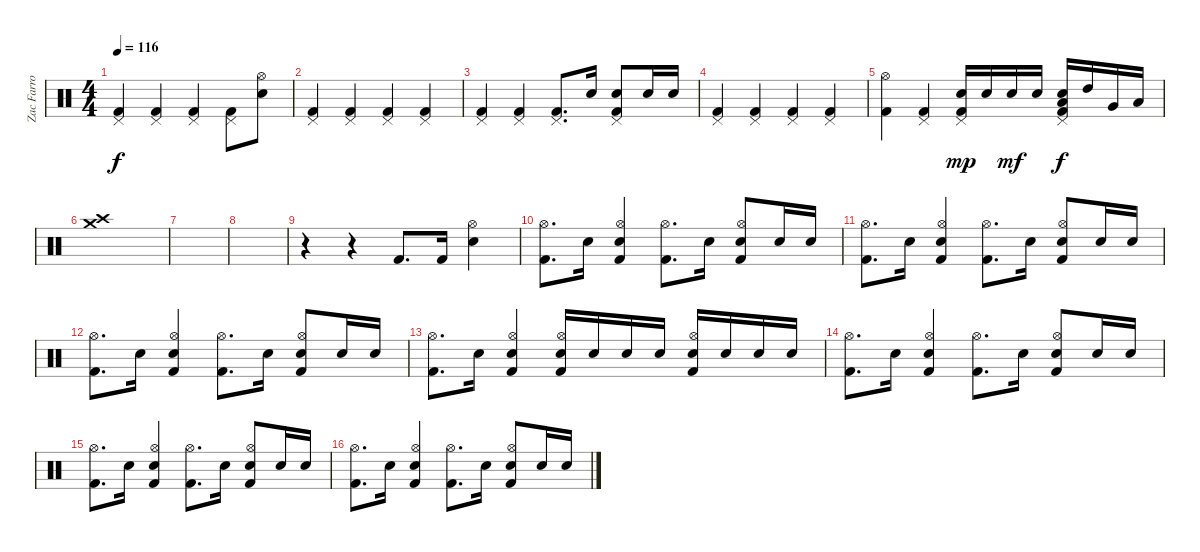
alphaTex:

\track ("Zac Farro" "Zac Farro") {instrument percussion}
\staff {score}
\articulation defaults
\ts (4 4)
\tempo 116
\clef neutral
\ks c
("Pedal Hi-Hat (hit)" "Kick (hit) 2").4{dy f} ("Pedal Hi-Hat (hit)" "Kick (hit) 2").4 ("Pedal Hi-Hat (hit)" "Kick (hit) 2").4 ("Pedal Hi-Hat (hit)" "Kick (hit) 2").8 ("Hi-Hat (open)" "Electric Snare (hit)").8 |
("Pedal Hi-Hat (hit)" "Kick (hit) 2").4 ("Pedal Hi-Hat (hit)" "Kick (hit) 2").4 ("Pedal Hi-Hat (hit)" "Kick (hit) 2").4 ("Pedal Hi-Hat (hit)" "Kick (hit) 2").4 |
("Pedal Hi-Hat (hit)" "Kick (hit) 2").4 ("Pedal Hi-Hat (hit)" "Kick (hit) 2").4 ("Pedal Hi-Hat (hit)" "Kick (hit) 2").8{d} "Electric Snare (hit)".16 ("Pedal Hi-Hat (hit)" "Kick (hit) 2" "Electric Snare (hit)").8 "Electric Snare (hit)".16 "Electric Snare (hit)".16 |
("Pedal Hi-Hat (hit)" "Kick (hit) 2").4 ("Pedal Hi-Hat (hit)" "Kick (hit) 2").4 ("Pedal Hi-Hat (hit)" "Kick (hit) 2").4 ("Pedal Hi-Hat (hit)" "Kick (hit) 2").4 |
("Hi-Hat (open)" "Kick (hit) 2").4 ("Pedal Hi-Hat (hit)" "Kick (hit) 2").4 ("Pedal Hi-Hat (hit)" "Kick (hit) 2" "Electric Snare (hit)").16{dy mp} "Electric Snare (hit)".16 "Electric Snare (hit)".16{dy mf} "Electric Snare (hit)".16 ("Pedal Hi-Hat (hit)" "Kick (hit) 2" "Electric Snare (hit)" "Low Floor Tom (hit)").16{dy f} "High Tom (hit)".16 "Very Low Tom (hit)".16 "Low Tom (hit)".16 |
("Crash high (hit)" "Crash medium (hit)").1 |
|
|
r.4 r.4 "Kick (hit) 2".8{d} "Kick (hit) 2".16 ("Hi-Hat (open)" "Electric Snare (hit)").4 |
("Hi-Hat (open)" "Kick (hit) 2").8{d} "Electric Snare (hit)".16 ("Hi-Hat (open)" "Kick (hit) 2" "Electric Snare (hit)").4 ("Hi-Hat (open)" "Kick (hit) 2").8{d} "Electric Snare (hit)".16 ("Hi-Hat (open)" "Kick (hit) 2" "Electric Snare (hit)").8 "Electric Snare (hit)".16 "Electric Snare (hit)".16 |
("Hi-Hat (open)" "Kick (hit) 2").8{d} "Electric Snare (hit)".16 ("Hi-Hat (open)" "Kick (hit) 2" "Electric Snare (hit)").4 ("Hi-Hat (open)" "Kick (hit) 2").8{d} "Electric Snare (hit)".16 ("Hi-Hat (open)" "Kick (hit) 2" "Electric Snare (hit)").8 "Electric Snare (hit)".16 "Electric Snare (hit)".16 |
("Hi-Hat (open)" "Kick (hit) 2").8{d} "Electric Snare (hit)".16 ("Hi-Hat (open)" "Kick (hit) 2" "Electric Snare (hit)").4 ("Hi-Hat (open)" "Kick (hit) 2").8{d} "Electric Snare (hit)".16 ("Hi-Hat (open)" "Kick (hit) 2" "Electric Snare (hit)").8 "Electric Snare (hit)".16 "Electric Snare (hit)".16 |
("Hi-Hat (open)" "Kick (hit) 2").8{d} "Electric Snare (hit)".16 ("Hi-Hat (open)" "Kick (hit) 2" "Electric Snare (hit)").4 ("Hi-Hat (open)" "Kick (hit) 2" "Electric Snare (hit)").16 "Electric Snare (hit)".16 "Electric Snare (hit)".16 "Electric Snare (hit)".16 ("Hi-Hat (open)" "Kick (hit) 2" "Electric Snare (hit)").16 "Electric Snare (hit)".16 "Electric Snare (hit)".16 "Electric Snare (hit)".16 |
("Hi-Hat (open)" "Kick (hit) 2").8{d} "Electric Snare (hit)".16 ("Hi-Hat (open)" "Kick (hit) 2" "Electric Snare (hit)").4 ("Hi-Hat (open)" "Kick (hit) 2").8{d} "Electric Snare (hit)".16 ("Hi-Hat (open)" "Kick (hit) 2" "Electric Snare (hit)").8 "Electric Snare (hit)".16 "Electric Snare (hit)".16 |
("Hi-Hat (open)" "Kick (hit) 2").8{d} "Electric Snare (hit)".16 ("Hi-Hat (open)" "Kick (hit) 2" "Electric Snare (hit)").4 ("Hi-Hat (open)" "Kick (hit) 2").8{d} "Electric Snare (hit)".16 ("Hi-Hat (open)" "Kick (hit) 2" "Electric Snare (hit)").8 "Electric Snare (hit)".16 "Electric Snare (hit)".16 |
("Hi-Hat (open)" "Kick (hit) 2").8{d} "Electric Snare (hit)".16 ("Hi-Hat (open)" "Kick (hit) 2" "Electric Snare (hit)").4 ("Hi-Hat (open)" "Kick (hit) 2").8{d} "Electric Snare (hit)".16 ("Hi-Hat (open)" "Kick (hit) 2" "Electric Snare (hit)").8 "Electric Snare (hit)".16 "Electric Snare (hit)".16
